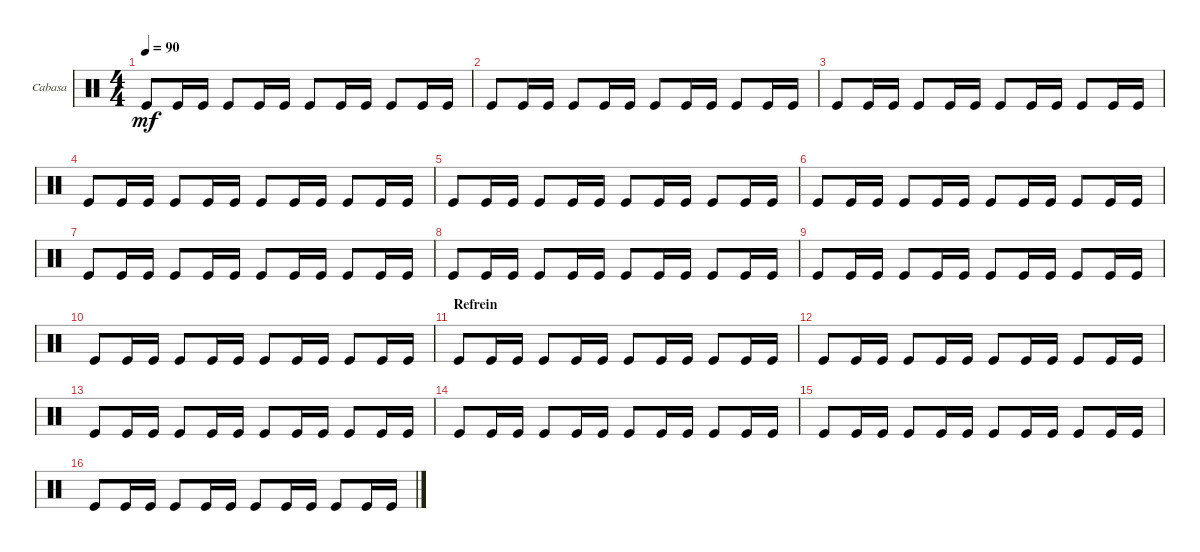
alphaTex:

\defaultSystemsLayout 4
\bracketExtendMode groupsimilarinstruments
\firstSystemTrackNameOrientation horizontal
\otherSystemsTrackNameOrientation horizontal
\track ("Cabasa" "Cabasa") {instrument percussion}
\staff {score}
\articulation defaults
\ts (4 4)
\tempo 90
\clef neutral
\scale
0.333333
\ks c "Kick (hit)".8{dy mf} "Kick (hit)".16 "Kick (hit)".16 "Kick (hit)".8 "Kick (hit)".16 "Kick (hit)".16 "Kick (hit)".8 "Kick (hit)".16 "Kick (hit)".16 "Kick (hit)".8 "Kick (hit)".16 "Kick (hit)".16
|
\scale
0.333333 "Kick (hit)".8 "Kick (hit)".16 "Kick (hit)".16 "Kick (hit)".8 "Kick (hit)".16 "Kick (hit)".16 "Kick (hit)".8 "Kick (hit)".16 "Kick (hit)".16 "Kick (hit)".8 "Kick (hit)".16 "Kick (hit)".16 |
\scale
0.333333 "Kick (hit)".8 "Kick (hit)".16 "Kick (hit)".16 "Kick (hit)".8 "Kick (hit)".16 "Kick (hit)".16 "Kick (hit)".8 "Kick (hit)".16 "Kick (hit)".16 "Kick (hit)".8 "Kick (hit)".16 "Kick (hit)".16 |
\scale
0.333333 "Kick (hit)".8 "Kick (hit)".16 "Kick (hit)".16 "Kick (hit)".8 "Kick (hit)".16 "Kick (hit)".16 "Kick (hit)".8 "Kick (hit)".16 "Kick (hit)".16 "Kick (hit)".8 "Kick (hit)".16 "Kick (hit)".16 |
\scale
0.333333 "Kick (hit)".8 "Kick (hit)".16 "Kick (hit)".16 "Kick (hit)".8 "Kick (hit)".16 "Kick (hit)".16 "Kick (hit)".8 "Kick (hit)".16 "Kick (hit)".16 "Kick (hit)".8 "Kick (hit)".16 "Kick (hit)".16 |
\scale
0.333333 "Kick (hit)".8 "Kick (hit)".16 "Kick (hit)".16 "Kick (hit)".8 "Kick (hit)".16 "Kick (hit)".16 "Kick (hit)".8 "Kick (hit)".16 "Kick (hit)".16 "Kick (hit)".8 "Kick (hit)".16 "Kick (hit)".16 |
\scale
0.333333 "Kick (hit)".8 "Kick (hit)".16 "Kick (hit)".16 "Kick (hit)".8 "Kick (hit)".16 "Kick (hit)".16 "Kick (hit)".8 "Kick (hit)".16 "Kick (hit)".16 "Kick (hit)".8 "Kick (hit)".16 "Kick (hit)".16 |
\scale
0.333333 "Kick (hit)".8 "Kick (hit)".16 "Kick (hit)".16 "Kick (hit)".8 "Kick (hit)".16 "Kick (hit)".16 "Kick (hit)".8 "Kick (hit)".16 "Kick (hit)".16 "Kick (hit)".8 "Kick (hit)".16 "Kick (hit)".16 |
\scale
0.333333 "Kick (hit)".8 "Kick (hit)".16 "Kick (hit)".16 "Kick (hit)".8 "Kick (hit)".16 "Kick (hit)".16 "Kick (hit)".8 "Kick (hit)".16 "Kick (hit)".16 "Kick (hit)".8 "Kick (hit)".16 "Kick (hit)".16 |
\scale
0.333333 "Kick (hit)".8 "Kick (hit)".16 "Kick (hit)".16 "Kick (hit)".8 "Kick (hit)".16 "Kick (hit)".16 "Kick (hit)".8 "Kick (hit)".16 "Kick (hit)".16 "Kick (hit)".8 "Kick (hit)".16 "Kick (hit)".16 |
\section ("" "Refrein")
\scale
0.333333 "Kick (hit)".8 "Kick (hit)".16 "Kick (hit)".16 "Kick (hit)".8 "Kick (hit)".16 "Kick (hit)".16 "Kick (hit)".8 "Kick (hit)".16 "Kick (hit)".16 "Kick (hit)".8 "Kick (hit)".16 "Kick (hit)".16 |
\scale
0.333333 "Kick (hit)".8 "Kick (hit)".16 "Kick (hit)".16 "Kick (hit)".8 "Kick (hit)".16 "Kick (hit)".16 "Kick (hit)".8 "Kick (hit)".16 "Kick (hit)".16 "Kick (hit)".8 "Kick (hit)".16 "Kick (hit)".16 |
\scale
0.333333 "Kick (hit)".8 "Kick (hit)".16 "Kick (hit)".16 "Kick (hit)".8 "Kick (hit)".16 "Kick (hit)".16 "Kick (hit)".8 "Kick (hit)".16 "Kick (hit)".16 "Kick (hit)".8 "Kick (hit)".16 "Kick (hit)".16 |
\scale
0.333333 "Kick (hit)".8 "Kick (hit)".16 "Kick (hit)".16 "Kick (hit)".8 "Kick (hit)".16 "Kick (hit)".16 "Kick (hit)".8 "Kick (hit)".16 "Kick (hit)".16 "Kick (hit)".8 "Kick (hit)".16 "Kick (hit)".16 |
\scale
0.333333 "Kick (hit)".8 "Kick (hit)".16 "Kick (hit)".16 "Kick (hit)".8 "Kick (hit)".16 "Kick (hit)".16 "Kick (hit)".8 "Kick (hit)".16 "Kick (hit)".16 "Kick (hit)".8 "Kick (hit)".16 "Kick (hit)".16 |
\scale
0.333333 "Kick (hit)".8 "Kick (hit)".16 "Kick (hit)".16 "Kick (hit)".8 "Kick (hit)".16 "Kick (hit)".16 "Kick (hit)".8 "Kick (hit)".16 "Kick (hit)".16 "Kick (hit)".8 "Kick (hit)".16 "Kick (hit)".16
